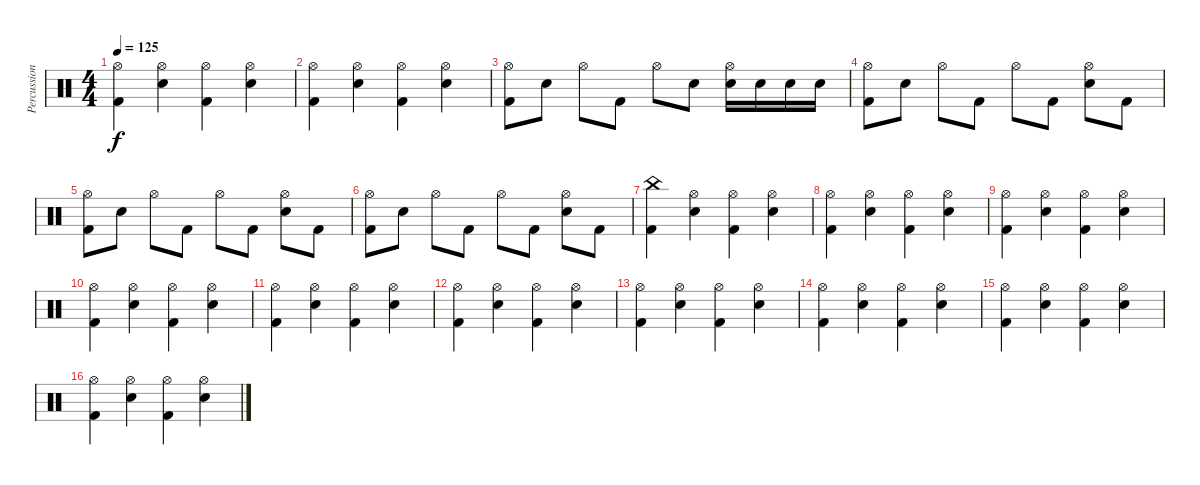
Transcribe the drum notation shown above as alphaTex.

\track ("Percussion" "Percussion") {instrument percussion}
\staff {score}
\articulation defaults
\ts (4 4)
\tempo 125
\clef neutral
\ks c
("Hi-Hat (open)" "Kick (hit) 2").4{dy f} ("Hi-Hat (open)" "Snare (hit) 2").4 ("Hi-Hat (open)" "Kick (hit) 2").4 ("Hi-Hat (open)" "Snare (hit) 2").4 |
("Hi-Hat (open)" "Kick (hit) 2").4 ("Hi-Hat (open)" "Snare (hit) 2").4 ("Hi-Hat (open)" "Kick (hit) 2").4 ("Hi-Hat (open)" "Snare (hit) 2").4 |
("Hi-Hat (open)" "Kick (hit) 2").8 "Snare (hit) 2".8 "Hi-Hat (open)".8 "Kick (hit) 2".8 "Hi-Hat (open)".8 "Snare (hit) 2".8 ("Hi-Hat (open)" "Snare (hit) 2").16 "Snare (hit) 2".16 "Snare (hit) 2".16 "Snare (hit) 2".16 |
("Hi-Hat (open)" "Kick (hit) 2").8 "Snare (hit) 2".8 "Hi-Hat (open)".8 "Kick (hit) 2".8 "Hi-Hat (open)".8 "Kick (hit) 2".8 ("Hi-Hat (open)" "Snare (hit) 2").8 "Kick (hit) 2".8 |
("Hi-Hat (open)" "Kick (hit) 2").8 "Snare (hit) 2".8 "Hi-Hat (open)".8 "Kick (hit) 2".8 "Hi-Hat (open)".8 "Kick (hit) 2".8 ("Hi-Hat (open)" "Snare (hit) 2").8 "Kick (hit) 2".8 |
("Hi-Hat (open)" "Kick (hit) 2").8 "Snare (hit) 2".8 "Hi-Hat (open)".8 "Kick (hit) 2".8 "Hi-Hat (open)".8 "Kick (hit) 2".8 ("Hi-Hat (open)" "Snare (hit) 2").8 "Kick (hit) 2".8 |
("China (hit)" "Kick (hit) 2").4 ("Hi-Hat (open)" "Snare (hit) 2").4 ("Hi-Hat (open)" "Kick (hit) 2").4 ("Hi-Hat (open)" "Snare (hit) 2").4 |
("Hi-Hat (open)" "Kick (hit) 2").4 ("Hi-Hat (open)" "Snare (hit) 2").4 ("Hi-Hat (open)" "Kick (hit) 2").4 ("Hi-Hat (open)" "Snare (hit) 2").4 |
("Hi-Hat (open)" "Kick (hit) 2").4 ("Hi-Hat (open)" "Snare (hit) 2").4 ("Hi-Hat (open)" "Kick (hit) 2").4 ("Hi-Hat (open)" "Snare (hit) 2").4 |
("Hi-Hat (open)" "Kick (hit) 2").4 ("Hi-Hat (open)" "Snare (hit) 2").4 ("Hi-Hat (open)" "Kick (hit) 2").4 ("Hi-Hat (open)" "Snare (hit) 2").4 |
("Hi-Hat (open)" "Kick (hit) 2").4 ("Hi-Hat (open)" "Snare (hit) 2").4 ("Hi-Hat (open)" "Kick (hit) 2").4 ("Hi-Hat (open)" "Snare (hit) 2").4 |
("Hi-Hat (open)" "Kick (hit) 2").4 ("Hi-Hat (open)" "Snare (hit) 2").4 ("Hi-Hat (open)" "Kick (hit) 2").4 ("Hi-Hat (open)" "Snare (hit) 2").4 |
("Hi-Hat (open)" "Kick (hit) 2").4 ("Hi-Hat (open)" "Snare (hit) 2").4 ("Hi-Hat (open)" "Kick (hit) 2").4 ("Hi-Hat (open)" "Snare (hit) 2").4 |
("Hi-Hat (open)" "Kick (hit) 2").4 ("Hi-Hat (open)" "Snare (hit) 2").4 ("Hi-Hat (open)" "Kick (hit) 2").4 ("Hi-Hat (open)" "Snare (hit) 2").4 |
("Hi-Hat (open)" "Kick (hit) 2").4 ("Hi-Hat (open)" "Snare (hit) 2").4 ("Hi-Hat (open)" "Kick (hit) 2").4 ("Hi-Hat (open)" "Snare (hit) 2").4 |
("Hi-Hat (open)" "Kick (hit) 2").4 ("Hi-Hat (open)" "Snare (hit) 2").4 ("Hi-Hat (open)" "Kick (hit) 2").4 ("Hi-Hat (open)" "Snare (hit) 2").4
